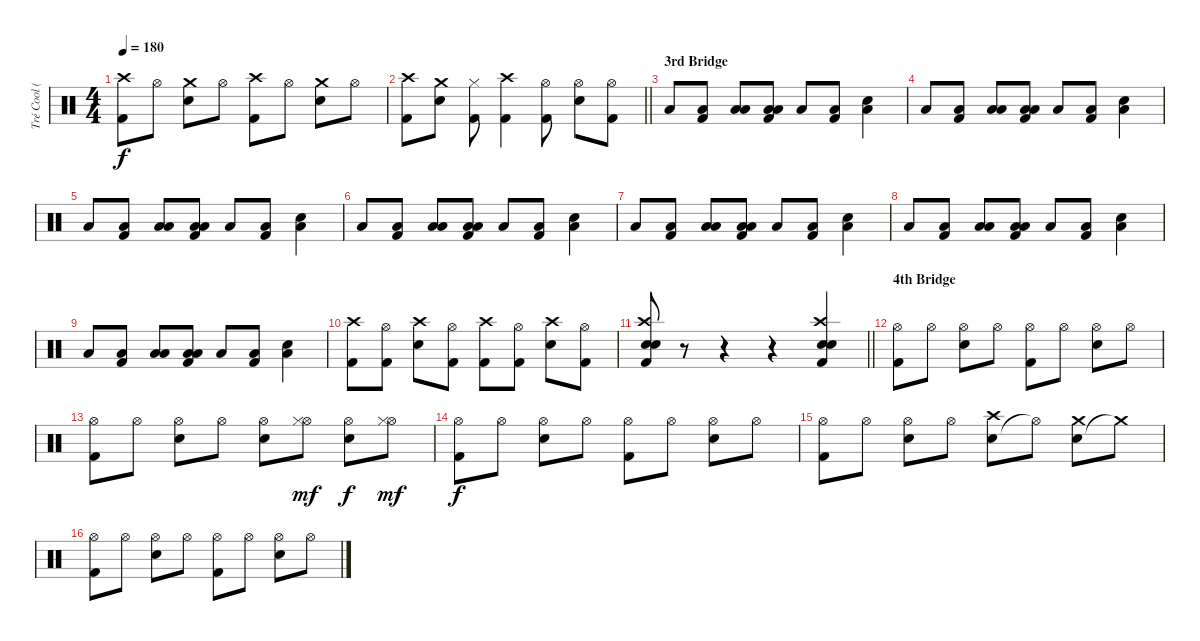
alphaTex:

\track ("Tré Cool (Drums)" "Tré Cool (") {instrument percussion}
\staff {score}
\articulation defaults
\ts (4 4)
\tempo 180
\clef neutral
\ks c
("Kick (hit) 2" "Crash high (hit)").8{dy f} "Hi-Hat (open)".8 ("Snare (hit) 2" "Crash medium (hit)").8 "Hi-Hat (open)".8 ("Kick (hit) 2" "Crash high (hit)").8 "Hi-Hat (open)".8 ("Snare (hit) 2" "Crash medium (hit)").8 "Hi-Hat (open)".8 |
\barLineRight lightlight
("Kick (hit) 2" "Crash high (hit)").8 ("Snare (hit) 2" "Crash medium (hit)").8 ("Kick (hit) 2" "Hi-Hat (closed)").8 ("Kick (hit) 2" "Crash high (hit)").4 ("Kick (hit) 2" "Hi-Hat (open)").8 ("Snare (hit) 2" "Hi-Hat (open)").8 ("Kick (hit) 2" "Hi-Hat (open)").8 |
\section ("" "3rd Bridge")
"Low Floor Tom (hit)".8 ("Kick (hit) 2" "Low Floor Tom (hit)").8 ("Low Floor Tom (hit)" "Low Tom (hit)").8 ("Kick (hit) 2" "Low Floor Tom (hit)" "Low Tom (hit)").8 "Low Floor Tom (hit)".8 ("Kick (hit) 2" "Low Floor Tom (hit)").8 ("Snare (hit) 2" "Low Floor Tom (hit)").4 |
"Low Floor Tom (hit)".8 ("Kick (hit) 2" "Low Floor Tom (hit)").8 ("Low Floor Tom (hit)" "Low Tom (hit)").8 ("Kick (hit) 2" "Low Floor Tom (hit)" "Low Tom (hit)").8 "Low Floor Tom (hit)".8 ("Kick (hit) 2" "Low Floor Tom (hit)").8 ("Snare (hit) 2" "Low Floor Tom (hit)").4 |
"Low Floor Tom (hit)".8 ("Kick (hit) 2" "Low Floor Tom (hit)").8 ("Low Floor Tom (hit)" "Low Tom (hit)").8 ("Kick (hit) 2" "Low Floor Tom (hit)" "Low Tom (hit)").8 "Low Floor Tom (hit)".8 ("Kick (hit) 2" "Low Floor Tom (hit)").8 ("Snare (hit) 2" "Low Floor Tom (hit)").4 |
"Low Floor Tom (hit)".8 ("Kick (hit) 2" "Low Floor Tom (hit)").8 ("Low Floor Tom (hit)" "Low Tom (hit)").8 ("Kick (hit) 2" "Low Floor Tom (hit)" "Low Tom (hit)").8 "Low Floor Tom (hit)".8 ("Kick (hit) 2" "Low Floor Tom (hit)").8 ("Snare (hit) 2" "Low Floor Tom (hit)").4 |
"Low Floor Tom (hit)".8 ("Kick (hit) 2" "Low Floor Tom (hit)").8 ("Low Floor Tom (hit)" "Low Tom (hit)").8 ("Kick (hit) 2" "Low Floor Tom (hit)" "Low Tom (hit)").8 "Low Floor Tom (hit)".8 ("Kick (hit) 2" "Low Floor Tom (hit)").8 ("Snare (hit) 2" "Low Floor Tom (hit)").4 |
"Low Floor Tom (hit)".8 ("Kick (hit) 2" "Low Floor Tom (hit)").8 ("Low Floor Tom (hit)" "Low Tom (hit)").8 ("Kick (hit) 2" "Low Floor Tom (hit)" "Low Tom (hit)").8 "Low Floor Tom (hit)".8 ("Kick (hit) 2" "Low Floor Tom (hit)").8 ("Snare (hit) 2" "Low Floor Tom (hit)").4 |
"Low Floor Tom (hit)".8 ("Kick (hit) 2" "Low Floor Tom (hit)").8 ("Low Floor Tom (hit)" "Low Tom (hit)").8 ("Kick (hit) 2" "Low Floor Tom (hit)" "Low Tom (hit)").8 "Low Floor Tom (hit)".8 ("Kick (hit) 2" "Low Floor Tom (hit)").8 ("Snare (hit) 2" "Low Floor Tom (hit)").4 |
("Kick (hit) 2" "Crash high (hit)").8 ("Kick (hit) 2" "Hi-Hat (open)").8 ("Snare (hit) 2" "Crash high (hit)").8 ("Kick (hit) 2" "Hi-Hat (open)").8 ("Kick (hit) 2" "Crash high (hit)").8 ("Kick (hit) 2" "Hi-Hat (open)").8 ("Snare (hit) 2" "Crash high (hit)").8 ("Kick (hit) 2" "Hi-Hat (open)").8 |
\barLineRight lightlight
("Snare (hit) 2" "Snare (hit) 2" "Kick (hit) 2" "Crash high (hit)").8 r.8 r.4 r.4 ("Snare (hit) 2" "Snare (hit) 2" "Kick (hit) 2" "Crash high (hit)").4 |
\section ("" "4th Bridge")
("Kick (hit) 2" "Hi-Hat (open)").8 "Hi-Hat (open)".8 ("Snare (hit) 2" "Hi-Hat (open)").8 "Hi-Hat (open)".8 ("Kick (hit) 2" "Hi-Hat (open)").8 "Hi-Hat (open)".8 ("Snare (hit) 2" "Hi-Hat (open)").8 "Hi-Hat (open)".8 |
("Kick (hit) 2" "Hi-Hat (open)").8 "Hi-Hat (open)".8 ("Snare (hit) 2" "Hi-Hat (open)").8 "Hi-Hat (open)".8 ("Snare (hit) 2" "Hi-Hat (open)").8 ("Hi-Hat (open)" "Hi-Hat (closed)").8{dy mf} ("Snare (hit) 2" "Hi-Hat (open)").8{dy f} ("Hi-Hat (open)" "Hi-Hat (closed)").8{dy mf} |
("Kick (hit) 2" "Hi-Hat (open)").8{dy f} "Hi-Hat (open)".8 ("Snare (hit) 2" "Hi-Hat (open)").8 "Hi-Hat (open)".8 ("Kick (hit) 2" "Hi-Hat (open)").8 "Hi-Hat (open)".8 ("Snare (hit) 2" "Hi-Hat (open)").8 "Hi-Hat (open)".8 |
("Kick (hit) 2" "Hi-Hat (open)").8 "Hi-Hat (open)".8 ("Snare (hit) 2" "Hi-Hat (open)").8 "Hi-Hat (open)".8 ("Snare (hit) 2" "Crash high (hit)").8 "Hi-Hat (open)"{t}.8 ("Snare (hit) 2" "Crash medium (hit)").8 "Crash medium (hit)"{t}.8 |
("Kick (hit) 2" "Hi-Hat (open)").8 "Hi-Hat (open)".8 ("Snare (hit) 2" "Hi-Hat (open)").8 "Hi-Hat (open)".8 ("Kick (hit) 2" "Hi-Hat (open)").8 "Hi-Hat (open)".8 ("Snare (hit) 2" "Hi-Hat (open)").8 "Hi-Hat (open)".8
